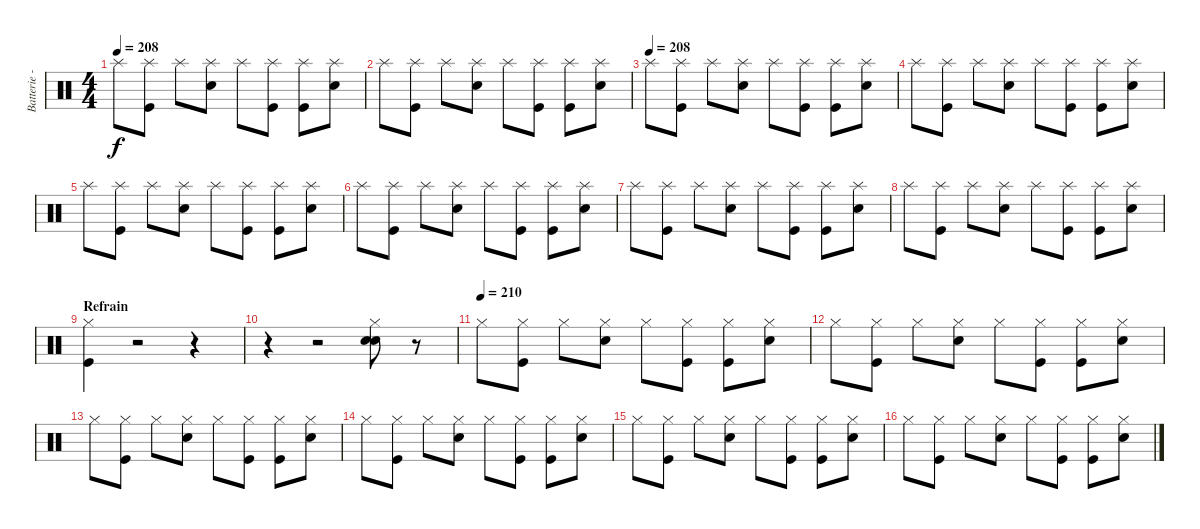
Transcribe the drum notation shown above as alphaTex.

\track ("Batterie - Guillaume" "Batterie -") {instrument percussion}
\staff {score}
\articulation defaults
\ts (4 4)
\tempo 208
\clef neutral
\ks c "Splash (hit)".8{dy f}
("Splash (hit)" "Kick (hit)").8 "Splash (hit)".8 ("Splash (hit)" "Snare (hit) 2").8 "Splash (hit)".8 ("Splash (hit)" "Kick (hit)").8 ("Splash (hit)" "Kick (hit)").8 ("Splash (hit)" "Snare (hit) 2").8 |
"Splash (hit)".8 ("Splash (hit)" "Kick (hit)").8 "Splash (hit)".8 ("Splash (hit)" "Snare (hit) 2").8 "Splash (hit)".8 ("Splash (hit)" "Kick (hit)").8 ("Splash (hit)" "Kick (hit)").8 ("Splash (hit)" "Snare (hit) 2").8 |
\tempo (208)
"Splash (hit)".8 ("Splash (hit)" "Kick (hit)").8 "Splash (hit)".8 ("Splash (hit)" "Snare (hit) 2").8 "Splash (hit)".8 ("Splash (hit)" "Kick (hit)").8 ("Splash (hit)" "Kick (hit)").8 ("Splash (hit)" "Snare (hit) 2").8 |
"Splash (hit)".8 ("Splash (hit)" "Kick (hit)").8 "Splash (hit)".8 ("Splash (hit)" "Snare (hit) 2").8 "Splash (hit)".8 ("Splash (hit)" "Kick (hit)").8 ("Splash (hit)" "Kick (hit)").8 ("Splash (hit)" "Snare (hit) 2").8 |
"Splash (hit)".8 ("Splash (hit)" "Kick (hit)").8 "Splash (hit)".8 ("Splash (hit)" "Snare (hit) 2").8 "Splash (hit)".8 ("Splash (hit)" "Kick (hit)").8 ("Splash (hit)" "Kick (hit)").8 ("Splash (hit)" "Snare (hit) 2").8 |
"Splash (hit)".8 ("Splash (hit)" "Kick (hit)").8 "Splash (hit)".8 ("Splash (hit)" "Snare (hit) 2").8 "Splash (hit)".8 ("Splash (hit)" "Kick (hit)").8 ("Splash (hit)" "Kick (hit)").8 ("Splash (hit)" "Snare (hit) 2").8 |
"Splash (hit)".8 ("Splash (hit)" "Kick (hit)").8 "Splash (hit)".8 ("Splash (hit)" "Snare (hit) 2").8 "Splash (hit)".8 ("Splash (hit)" "Kick (hit)").8 ("Splash (hit)" "Kick (hit)").8 ("Splash (hit)" "Snare (hit) 2").8 |
"Splash (hit)".8 ("Splash (hit)" "Kick (hit)").8 "Splash (hit)".8 ("Splash (hit)" "Snare (hit) 2").8 "Splash (hit)".8 ("Splash (hit)" "Kick (hit)").8 ("Splash (hit)" "Kick (hit)").8 ("Splash (hit)" "Snare (hit) 2").8 |
\section ("" "Refrain")
("Hi-Hat (closed)" "Kick (hit)").4 r.2 r.4 |
r.4 r.2 ("Hi-Hat (closed)" "Snare (hit) 2" "Hand Clap (hit)").8 r.8 |
\tempo (210)
"Hi-Hat (closed)".8 ("Hi-Hat (closed)" "Kick (hit)").8 "Hi-Hat (closed)".8 ("Hi-Hat (closed)" "Snare (hit) 2").8 "Hi-Hat (closed)".8 ("Hi-Hat (closed)" "Kick (hit)").8 ("Hi-Hat (closed)" "Kick (hit)").8 ("Hi-Hat (closed)" "Snare (hit) 2").8 |
"Hi-Hat (closed)".8 ("Hi-Hat (closed)" "Kick (hit)").8 "Hi-Hat (closed)".8 ("Hi-Hat (closed)" "Snare (hit) 2").8 "Hi-Hat (closed)".8 ("Hi-Hat (closed)" "Kick (hit)").8 ("Hi-Hat (closed)" "Kick (hit)").8 ("Hi-Hat (closed)" "Snare (hit) 2").8 |
"Hi-Hat (closed)".8 ("Hi-Hat (closed)" "Kick (hit)").8 "Hi-Hat (closed)".8 ("Hi-Hat (closed)" "Snare (hit) 2").8 "Hi-Hat (closed)".8 ("Hi-Hat (closed)" "Kick (hit)").8 ("Hi-Hat (closed)" "Kick (hit)").8 ("Hi-Hat (closed)" "Snare (hit) 2").8 |
"Hi-Hat (closed)".8 ("Hi-Hat (closed)" "Kick (hit)").8 "Hi-Hat (closed)".8 ("Hi-Hat (closed)" "Snare (hit) 2").8 "Hi-Hat (closed)".8 ("Hi-Hat (closed)" "Kick (hit)").8 ("Hi-Hat (closed)" "Kick (hit)").8 ("Hi-Hat (closed)" "Snare (hit) 2").8 |
"Hi-Hat (closed)".8 ("Hi-Hat (closed)" "Kick (hit)").8 "Hi-Hat (closed)".8 ("Hi-Hat (closed)" "Snare (hit) 2").8 "Hi-Hat (closed)".8 ("Hi-Hat (closed)" "Kick (hit)").8 ("Hi-Hat (closed)" "Kick (hit)").8 ("Hi-Hat (closed)" "Snare (hit) 2").8 |
"Hi-Hat (closed)".8 ("Hi-Hat (closed)" "Kick (hit)").8 "Hi-Hat (closed)".8 ("Hi-Hat (closed)" "Snare (hit) 2").8 "Hi-Hat (closed)".8 ("Hi-Hat (closed)" "Kick (hit)").8 ("Hi-Hat (closed)" "Kick (hit)").8 ("Hi-Hat (closed)" "Snare (hit) 2").8
